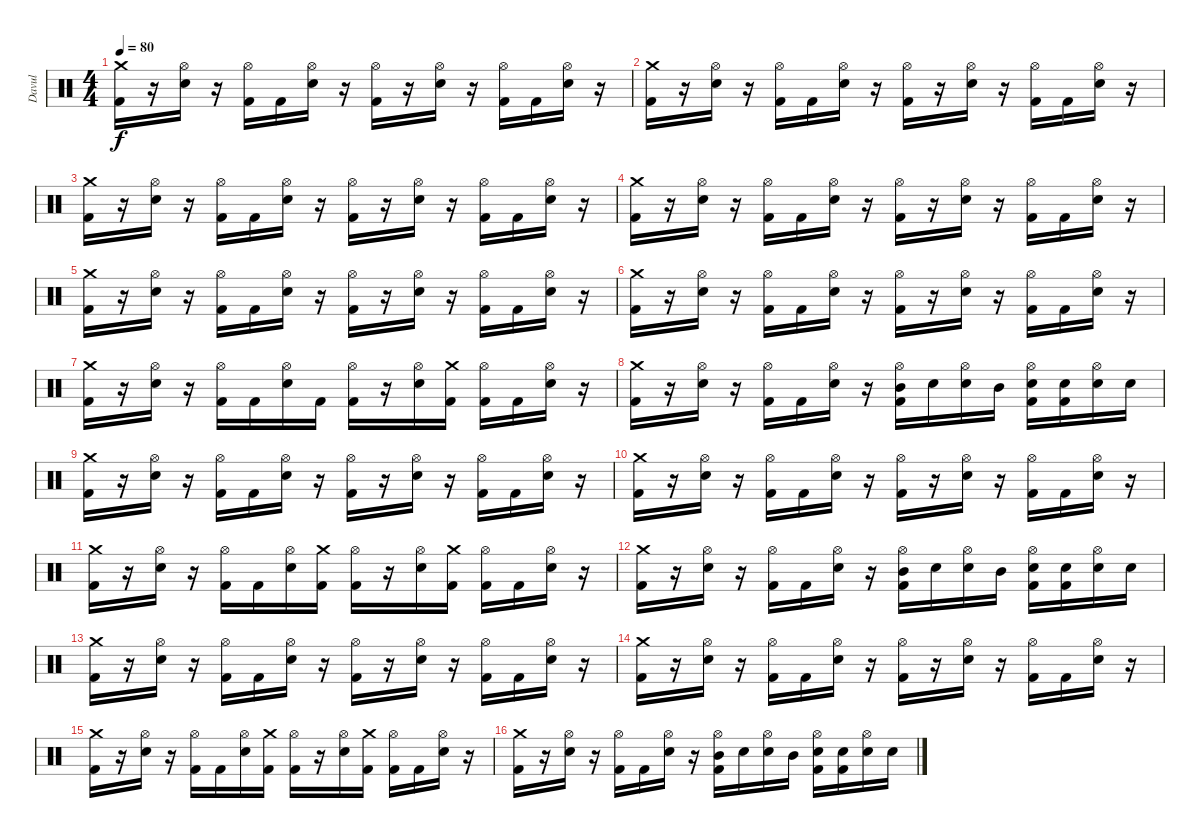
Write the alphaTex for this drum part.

\track ("Davul" "Davul") {instrument percussion}
\staff {score}
\articulation defaults
\ts (4 4)
\tempo 80
\clef neutral
\ks c
("Crash medium (hit)" "Kick (hit) 2").16{dy f} r.16 ("Hi-Hat (open)" "Snare (hit) 2").16 r.16 ("Hi-Hat (open)" "Kick (hit) 2").16 "Kick (hit) 2".16 ("Hi-Hat (open)" "Snare (hit) 2").16 r.16 ("Hi-Hat (open)" "Kick (hit) 2").16 r.16 ("Hi-Hat (open)" "Snare (hit) 2").16 r.16 ("Hi-Hat (open)" "Kick (hit) 2").16 "Kick (hit) 2".16 ("Hi-Hat (open)" "Snare (hit) 2").16 r.16 |
("Crash medium (hit)" "Kick (hit) 2").16 r.16 ("Hi-Hat (open)" "Snare (hit) 2").16 r.16 ("Hi-Hat (open)" "Kick (hit) 2").16 "Kick (hit) 2".16 ("Hi-Hat (open)" "Snare (hit) 2").16 r.16 ("Hi-Hat (open)" "Kick (hit) 2").16 r.16 ("Hi-Hat (open)" "Snare (hit) 2").16 r.16 ("Hi-Hat (open)" "Kick (hit) 2").16 "Kick (hit) 2".16 ("Hi-Hat (open)" "Snare (hit) 2").16 r.16 |
("Crash medium (hit)" "Kick (hit) 2").16 r.16 ("Hi-Hat (open)" "Snare (hit) 2").16 r.16 ("Hi-Hat (open)" "Kick (hit) 2").16 "Kick (hit) 2".16 ("Hi-Hat (open)" "Snare (hit) 2").16 r.16 ("Hi-Hat (open)" "Kick (hit) 2").16 r.16 ("Hi-Hat (open)" "Snare (hit) 2").16 r.16 ("Hi-Hat (open)" "Kick (hit) 2").16 "Kick (hit) 2".16 ("Hi-Hat (open)" "Snare (hit) 2").16 r.16 |
("Crash medium (hit)" "Kick (hit) 2").16 r.16 ("Hi-Hat (open)" "Snare (hit) 2").16 r.16 ("Hi-Hat (open)" "Kick (hit) 2").16 "Kick (hit) 2".16 ("Hi-Hat (open)" "Snare (hit) 2").16 r.16 ("Hi-Hat (open)" "Kick (hit) 2").16 r.16 ("Hi-Hat (open)" "Snare (hit) 2").16 r.16 ("Hi-Hat (open)" "Kick (hit) 2").16 "Kick (hit) 2".16 ("Hi-Hat (open)" "Snare (hit) 2").16 r.16 |
("Crash medium (hit)" "Kick (hit) 2").16 r.16 ("Hi-Hat (open)" "Snare (hit) 2").16 r.16 ("Hi-Hat (open)" "Kick (hit) 2").16 "Kick (hit) 2".16 ("Hi-Hat (open)" "Snare (hit) 2").16 r.16 ("Hi-Hat (open)" "Kick (hit) 2").16 r.16 ("Hi-Hat (open)" "Snare (hit) 2").16 r.16 ("Hi-Hat (open)" "Kick (hit) 2").16 "Kick (hit) 2".16 ("Hi-Hat (open)" "Snare (hit) 2").16 r.16 |
("Crash medium (hit)" "Kick (hit) 2").16 r.16 ("Hi-Hat (open)" "Snare (hit) 2").16 r.16 ("Hi-Hat (open)" "Kick (hit) 2").16 "Kick (hit) 2".16 ("Hi-Hat (open)" "Snare (hit) 2").16 r.16 ("Hi-Hat (open)" "Kick (hit) 2").16 r.16 ("Hi-Hat (open)" "Snare (hit) 2").16 r.16 ("Hi-Hat (open)" "Kick (hit) 2").16 "Kick (hit) 2".16 ("Hi-Hat (open)" "Snare (hit) 2").16 r.16 |
("Crash medium (hit)" "Kick (hit) 2").16 r.16 ("Hi-Hat (open)" "Snare (hit) 2").16 r.16 ("Hi-Hat (open)" "Kick (hit) 2").16 "Kick (hit) 2".16 ("Hi-Hat (open)" "Snare (hit) 2").16 "Kick (hit) 2".16 ("Hi-Hat (open)" "Kick (hit) 2").16 r.16 ("Hi-Hat (open)" "Snare (hit) 2").16 ("Crash medium (hit)" "Kick (hit) 2").16 ("Hi-Hat (open)" "Kick (hit) 2").16 "Kick (hit) 2".16 ("Hi-Hat (open)" "Snare (hit) 2").16 r.16 |
("Crash medium (hit)" "Kick (hit) 2").16 r.16 ("Hi-Hat (open)" "Snare (hit) 2").16 r.16 ("Hi-Hat (open)" "Kick (hit) 2").16 "Kick (hit) 2".16 ("Hi-Hat (open)" "Snare (hit) 2").16 r.16 ("Hi-Hat (open)" "Mid Tom (hit)" "Kick (hit) 2").16 "Snare (hit) 2".16 ("Hi-Hat (open)" "Snare (hit) 2").16 "Mid Tom (hit)".16 ("Hi-Hat (open)" "Snare (hit) 2" "Kick (hit) 2").16 ("Snare (hit) 2" "Kick (hit) 2").16 ("Hi-Hat (open)" "Snare (hit) 2").16 "Snare (hit) 2".16 |
("Crash medium (hit)" "Kick (hit) 2").16 r.16 ("Hi-Hat (open)" "Snare (hit) 2").16 r.16 ("Hi-Hat (open)" "Kick (hit) 2").16 "Kick (hit) 2".16 ("Hi-Hat (open)" "Snare (hit) 2").16 r.16 ("Hi-Hat (open)" "Kick (hit) 2").16 r.16 ("Hi-Hat (open)" "Snare (hit) 2").16 r.16 ("Hi-Hat (open)" "Kick (hit) 2").16 "Kick (hit) 2".16 ("Hi-Hat (open)" "Snare (hit) 2").16 r.16 |
("Crash medium (hit)" "Kick (hit) 2").16 r.16 ("Hi-Hat (open)" "Snare (hit) 2").16 r.16 ("Hi-Hat (open)" "Kick (hit) 2").16 "Kick (hit) 2".16 ("Hi-Hat (open)" "Snare (hit) 2").16 r.16 ("Hi-Hat (open)" "Kick (hit) 2").16 r.16 ("Hi-Hat (open)" "Snare (hit) 2").16 r.16 ("Hi-Hat (open)" "Kick (hit) 2").16 "Kick (hit) 2".16 ("Hi-Hat (open)" "Snare (hit) 2").16 r.16 |
("Crash medium (hit)" "Kick (hit) 2").16 r.16 ("Hi-Hat (open)" "Snare (hit) 2").16 r.16 ("Hi-Hat (open)" "Kick (hit) 2").16 "Kick (hit) 2".16 ("Hi-Hat (open)" "Snare (hit) 2").16 ("Crash medium (hit)" "Kick (hit) 2").16 ("Hi-Hat (open)" "Kick (hit) 2").16 r.16 ("Hi-Hat (open)" "Snare (hit) 2").16 ("Crash medium (hit)" "Kick (hit) 2").16 ("Hi-Hat (open)" "Kick (hit) 2").16 "Kick (hit) 2".16 ("Hi-Hat (open)" "Snare (hit) 2").16 r.16 |
("Crash medium (hit)" "Kick (hit) 2").16 r.16 ("Hi-Hat (open)" "Snare (hit) 2").16 r.16 ("Hi-Hat (open)" "Kick (hit) 2").16 "Kick (hit) 2".16 ("Hi-Hat (open)" "Snare (hit) 2").16 r.16 ("Hi-Hat (open)" "Mid Tom (hit)" "Kick (hit) 2").16 "Snare (hit) 2".16 ("Hi-Hat (open)" "Snare (hit) 2").16 "Mid Tom (hit)".16 ("Hi-Hat (open)" "Snare (hit) 2" "Kick (hit) 2").16 ("Snare (hit) 2" "Kick (hit) 2").16 ("Hi-Hat (open)" "Snare (hit) 2").16 "Snare (hit) 2".16 |
("Crash medium (hit)" "Kick (hit) 2").16 r.16 ("Hi-Hat (open)" "Snare (hit) 2").16 r.16 ("Hi-Hat (open)" "Kick (hit) 2").16 "Kick (hit) 2".16 ("Hi-Hat (open)" "Snare (hit) 2").16 r.16 ("Hi-Hat (open)" "Kick (hit) 2").16 r.16 ("Hi-Hat (open)" "Snare (hit) 2").16 r.16 ("Hi-Hat (open)" "Kick (hit) 2").16 "Kick (hit) 2".16 ("Hi-Hat (open)" "Snare (hit) 2").16 r.16 |
("Crash medium (hit)" "Kick (hit) 2").16 r.16 ("Hi-Hat (open)" "Snare (hit) 2").16 r.16 ("Hi-Hat (open)" "Kick (hit) 2").16 "Kick (hit) 2".16 ("Hi-Hat (open)" "Snare (hit) 2").16 r.16 ("Hi-Hat (open)" "Kick (hit) 2").16 r.16 ("Hi-Hat (open)" "Snare (hit) 2").16 r.16 ("Hi-Hat (open)" "Kick (hit) 2").16 "Kick (hit) 2".16 ("Hi-Hat (open)" "Snare (hit) 2").16 r.16 |
("Crash medium (hit)" "Kick (hit) 2").16 r.16 ("Hi-Hat (open)" "Snare (hit) 2").16 r.16 ("Hi-Hat (open)" "Kick (hit) 2").16 "Kick (hit) 2".16 ("Hi-Hat (open)" "Snare (hit) 2").16 ("Crash medium (hit)" "Kick (hit) 2").16 ("Hi-Hat (open)" "Kick (hit) 2").16 r.16 ("Hi-Hat (open)" "Snare (hit) 2").16 ("Crash medium (hit)" "Kick (hit) 2").16 ("Hi-Hat (open)" "Kick (hit) 2").16 "Kick (hit) 2".16 ("Hi-Hat (open)" "Snare (hit) 2").16 r.16 |
("Crash medium (hit)" "Kick (hit) 2").16 r.16 ("Hi-Hat (open)" "Snare (hit) 2").16 r.16 ("Hi-Hat (open)" "Kick (hit) 2").16 "Kick (hit) 2".16 ("Hi-Hat (open)" "Snare (hit) 2").16 r.16 ("Hi-Hat (open)" "Mid Tom (hit)" "Kick (hit) 2").16 "Snare (hit) 2".16 ("Hi-Hat (open)" "Snare (hit) 2").16 "Mid Tom (hit)".16 ("Hi-Hat (open)" "Snare (hit) 2" "Kick (hit) 2").16 ("Snare (hit) 2" "Kick (hit) 2").16 ("Hi-Hat (open)" "Snare (hit) 2").16 "Snare (hit) 2".16
